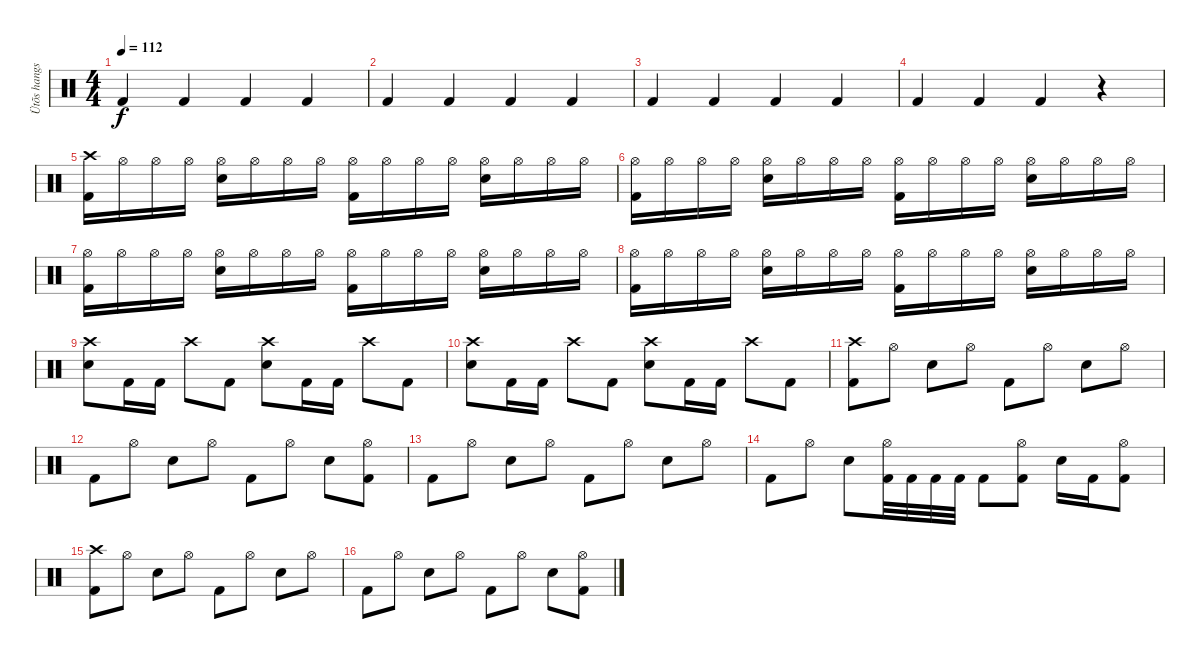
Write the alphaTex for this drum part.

\track ("Ütõs hangszer" "Ütõs hangs") {instrument percussion}
\staff {score}
\articulation defaults
\ts (4 4)
\tempo 112
\clef neutral
\ks c "Kick (hit) 2".4{dy f} "Kick (hit) 2".4 "Kick (hit) 2".4 "Kick (hit) 2".4
|
"Kick (hit) 2".4 "Kick (hit) 2".4 "Kick (hit) 2".4 "Kick (hit) 2".4 |
"Kick (hit) 2".4 "Kick (hit) 2".4 "Kick (hit) 2".4 "Kick (hit) 2".4 |
"Kick (hit) 2".4 "Kick (hit) 2".4 "Kick (hit) 2".4 r.4 |
("Crash high (hit)" "Kick (hit) 2").16 "Hi-Hat (open)".16 "Hi-Hat (open)".16 "Hi-Hat (open)".16 ("Hi-Hat (open)" "Electric Snare (hit)").16 "Hi-Hat (open)".16 "Hi-Hat (open)".16 "Hi-Hat (open)".16 ("Hi-Hat (open)" "Kick (hit) 2").16 "Hi-Hat (open)".16 "Hi-Hat (open)".16 "Hi-Hat (open)".16 ("Hi-Hat (open)" "Electric Snare (hit)").16 "Hi-Hat (open)".16 "Hi-Hat (open)".16 "Hi-Hat (open)".16 |
("Hi-Hat (open)" "Kick (hit) 2").16 "Hi-Hat (open)".16 "Hi-Hat (open)".16 "Hi-Hat (open)".16 ("Hi-Hat (open)" "Electric Snare (hit)").16 "Hi-Hat (open)".16 "Hi-Hat (open)".16 "Hi-Hat (open)".16 ("Hi-Hat (open)" "Kick (hit) 2").16 "Hi-Hat (open)".16 "Hi-Hat (open)".16 "Hi-Hat (open)".16 ("Hi-Hat (open)" "Electric Snare (hit)").16 "Hi-Hat (open)".16 "Hi-Hat (open)".16 "Hi-Hat (open)".16 |
("Hi-Hat (open)" "Kick (hit) 2").16 "Hi-Hat (open)".16 "Hi-Hat (open)".16 "Hi-Hat (open)".16 ("Hi-Hat (open)" "Electric Snare (hit)").16 "Hi-Hat (open)".16 "Hi-Hat (open)".16 "Hi-Hat (open)".16 ("Hi-Hat (open)" "Kick (hit) 2").16 "Hi-Hat (open)".16 "Hi-Hat (open)".16 "Hi-Hat (open)".16 ("Hi-Hat (open)" "Electric Snare (hit)").16 "Hi-Hat (open)".16 "Hi-Hat (open)".16 "Hi-Hat (open)".16 |
("Hi-Hat (open)" "Kick (hit) 2").16 "Hi-Hat (open)".16 "Hi-Hat (open)".16 "Hi-Hat (open)".16 ("Hi-Hat (open)" "Electric Snare (hit)").16 "Hi-Hat (open)".16 "Hi-Hat (open)".16 "Hi-Hat (open)".16 ("Hi-Hat (open)" "Kick (hit) 2").16 "Hi-Hat (open)".16 "Hi-Hat (open)".16 "Hi-Hat (open)".16 ("Hi-Hat (open)" "Electric Snare (hit)").16 "Hi-Hat (open)".16 "Hi-Hat (open)".16 "Hi-Hat (open)".16 |
("Crash high (hit)" "Electric Snare (hit)").8 "Kick (hit) 2".16 "Kick (hit) 2".16 "Crash high (hit)".8 "Kick (hit) 2".8 ("Crash high (hit)" "Electric Snare (hit)").8 "Kick (hit) 2".16 "Kick (hit) 2".16 "Crash high (hit)".8 "Kick (hit) 2".8 |
("Crash high (hit)" "Electric Snare (hit)").8 "Kick (hit) 2".16 "Kick (hit) 2".16 "Crash high (hit)".8 "Kick (hit) 2".8 ("Crash high (hit)" "Electric Snare (hit)").8 "Kick (hit) 2".16 "Kick (hit) 2".16 "Crash high (hit)".8 "Kick (hit) 2".8 |
("Crash high (hit)" "Kick (hit) 2").8 "Hi-Hat (open)".8 "Electric Snare (hit)".8 "Hi-Hat (open)".8 "Kick (hit) 2".8 "Hi-Hat (open)".8 "Electric Snare (hit)".8 "Hi-Hat (open)".8 |
"Kick (hit) 2".8 "Hi-Hat (open)".8 "Electric Snare (hit)".8 "Hi-Hat (open)".8 "Kick (hit) 2".8 "Hi-Hat (open)".8 "Electric Snare (hit)".8 ("Hi-Hat (open)" "Kick (hit) 2").8 |
"Kick (hit) 2".8 "Hi-Hat (open)".8 "Electric Snare (hit)".8 "Hi-Hat (open)".8 "Kick (hit) 2".8 "Hi-Hat (open)".8 "Electric Snare (hit)".8 "Hi-Hat (open)".8 |
"Kick (hit) 2".8 "Hi-Hat (open)".8 "Electric Snare (hit)".8 ("Hi-Hat (open)" "Kick (hit) 2").32 "Kick (hit) 2".32 "Kick (hit) 2".32 "Kick (hit) 2".32 "Kick (hit) 2".8 ("Hi-Hat (open)" "Kick (hit) 2").8 "Electric Snare (hit)".16 "Kick (hit) 2".16 ("Hi-Hat (open)" "Kick (hit) 2").8 |
("Crash high (hit)" "Kick (hit) 2").8 "Hi-Hat (open)".8 "Electric Snare (hit)".8 "Hi-Hat (open)".8 "Kick (hit) 2".8 "Hi-Hat (open)".8 "Electric Snare (hit)".8 "Hi-Hat (open)".8 |
"Kick (hit) 2".8 "Hi-Hat (open)".8 "Electric Snare (hit)".8 "Hi-Hat (open)".8 "Kick (hit) 2".8 "Hi-Hat (open)".8 "Electric Snare (hit)".8 ("Hi-Hat (open)" "Kick (hit) 2").8
